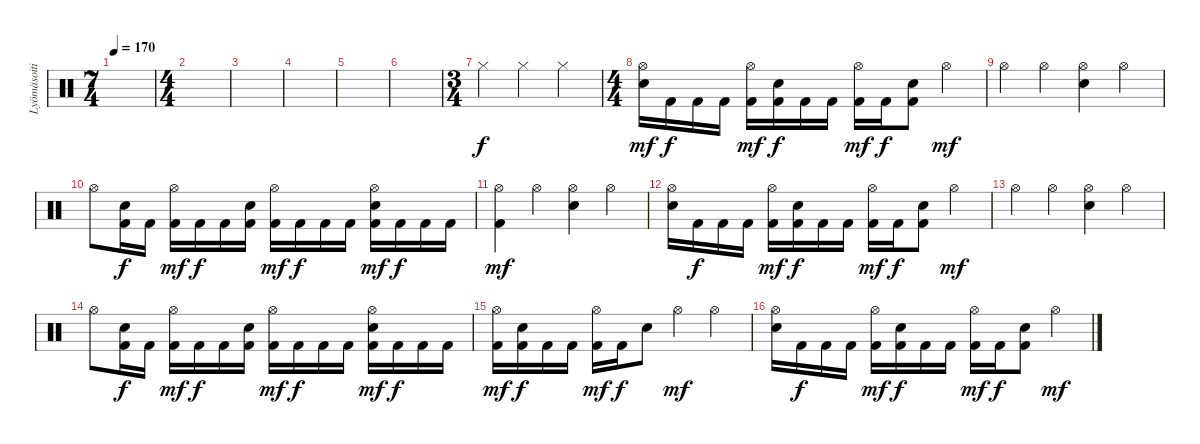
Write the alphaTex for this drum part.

\track ("Lyömäsoitin" "Lyömäsoiti") {instrument percussion}
\staff {score}
\articulation defaults
\ts (7 4)
\tempo 170
\clef neutral
\ks c
|
\ts (4 4)
|
|
|
|
|
\ts (3 4)
"Hi-Hat (closed)".4 "Hi-Hat (closed)".4 "Hi-Hat (closed)".4 |
\ts (4 4)
("Hi-Hat (open)" "Electric Snare (hit)").16{dy mf} "Kick (hit) 2".16{dy f} "Kick (hit) 2".16 "Kick (hit) 2".16 ("Hi-Hat (open)" "Kick (hit) 2").16{dy mf} ("Electric Snare (hit)" "Kick (hit) 2").16{dy f} "Kick (hit) 2".16 "Kick (hit) 2".16 ("Hi-Hat (open)" "Kick (hit) 2").16{dy mf} "Kick (hit) 2".16{dy f} ("Electric Snare (hit)" "Kick (hit) 2").8 "Hi-Hat (open)".4{dy mf} |
"Hi-Hat (open)".4 "Hi-Hat (open)".4 ("Hi-Hat (open)" "Electric Snare (hit)").4 "Hi-Hat (open)".4 |
"Hi-Hat (open)".8 ("Kick (hit) 2" "Electric Snare (hit)").16{dy f} "Kick (hit) 2".16 ("Kick (hit) 2" "Hi-Hat (open)").16{dy mf} "Kick (hit) 2".16{dy f} "Kick (hit) 2".16 ("Kick (hit) 2" "Electric Snare (hit)").16 ("Kick (hit) 2" "Hi-Hat (open)").16{dy mf} "Kick (hit) 2".16{dy f} "Kick (hit) 2".16 "Kick (hit) 2".16 ("Kick (hit) 2" "Hi-Hat (open)" "Electric Snare (hit)").16{dy mf} "Kick (hit) 2".16{dy f} "Kick (hit) 2".16 "Kick (hit) 2".16 |
("Kick (hit) 2" "Hi-Hat (open)").4{dy mf} "Hi-Hat (open)".4 ("Hi-Hat (open)" "Electric Snare (hit)").4 "Hi-Hat (open)".4 |
("Hi-Hat (open)" "Electric Snare (hit)").16 "Kick (hit) 2".16{dy f} "Kick (hit) 2".16 "Kick (hit) 2".16 ("Hi-Hat (open)" "Kick (hit) 2").16{dy mf} ("Electric Snare (hit)" "Kick (hit) 2").16{dy f} "Kick (hit) 2".16 "Kick (hit) 2".16 ("Hi-Hat (open)" "Kick (hit) 2").16{dy mf} "Kick (hit) 2".16{dy f} ("Electric Snare (hit)" "Kick (hit) 2").8 "Hi-Hat (open)".4{dy mf} |
"Hi-Hat (open)".4 "Hi-Hat (open)".4 ("Hi-Hat (open)" "Electric Snare (hit)").4 "Hi-Hat (open)".4 |
"Hi-Hat (open)".8 ("Kick (hit) 2" "Electric Snare (hit)").16{dy f} "Kick (hit) 2".16 ("Kick (hit) 2" "Hi-Hat (open)").16{dy mf} "Kick (hit) 2".16{dy f} "Kick (hit) 2".16 ("Kick (hit) 2" "Electric Snare (hit)").16 ("Kick (hit) 2" "Hi-Hat (open)").16{dy mf} "Kick (hit) 2".16{dy f} "Kick (hit) 2".16 "Kick (hit) 2".16 ("Kick (hit) 2" "Hi-Hat (open)" "Electric Snare (hit)").16{dy mf} "Kick (hit) 2".16{dy f} "Kick (hit) 2".16 "Kick (hit) 2".16 |
("Hi-Hat (open)" "Kick (hit) 2").16{dy mf} ("Kick (hit) 2" "Electric Snare (hit)").16{dy f} "Kick (hit) 2".16 "Kick (hit) 2".16 ("Kick (hit) 2" "Hi-Hat (open)").16{dy mf} "Kick (hit) 2".16{dy f} "Electric Snare (hit)".8 "Hi-Hat (open)".4{dy mf} "Hi-Hat (open)".4 |
("Hi-Hat (open)" "Electric Snare (hit)").16 "Kick (hit) 2".16{dy f} "Kick (hit) 2".16 "Kick (hit) 2".16 ("Hi-Hat (open)" "Kick (hit) 2").16{dy mf} ("Electric Snare (hit)" "Kick (hit) 2").16{dy f} "Kick (hit) 2".16 "Kick (hit) 2".16 ("Hi-Hat (open)" "Kick (hit) 2").16{dy mf} "Kick (hit) 2".16{dy f} ("Electric Snare (hit)" "Kick (hit) 2").8 "Hi-Hat (open)".4{dy mf}
